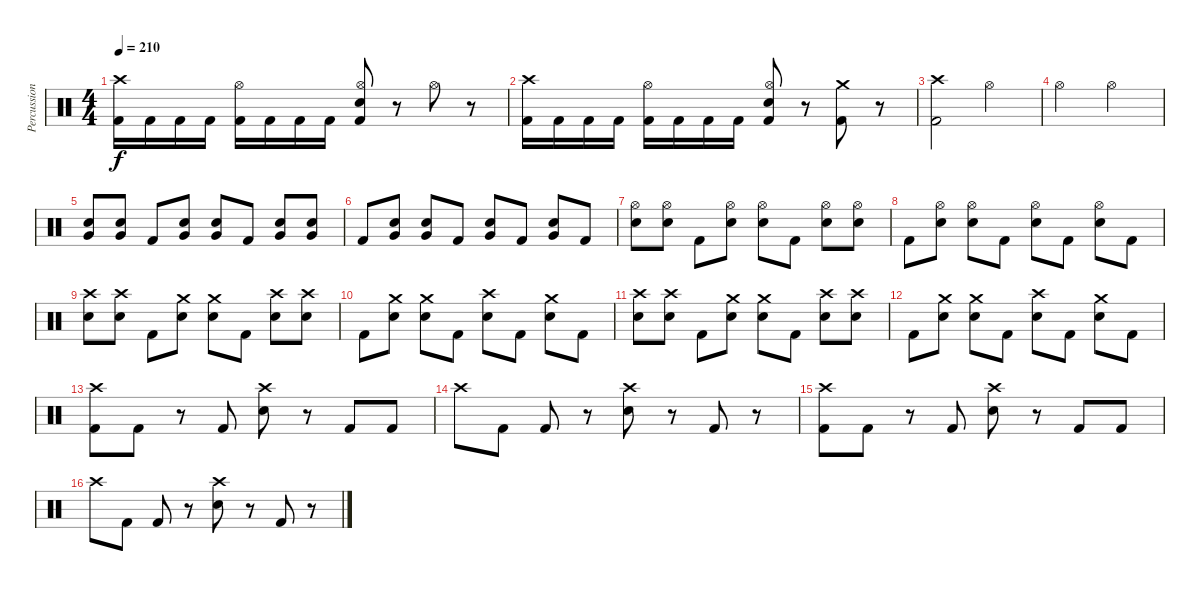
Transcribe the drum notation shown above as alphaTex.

\track ("Percussion" "Percussion") {instrument percussion}
\staff {score}
\articulation defaults
\ts (4 4)
\tempo 210
\clef neutral
\ks c
("Crash high (hit)" "Kick (hit) 2").16{dy f} "Kick (hit) 2".16 "Kick (hit) 2".16 "Kick (hit) 2".16 ("Hi-Hat (open)" "Kick (hit) 2").16 "Kick (hit) 2".16 "Kick (hit) 2".16 "Kick (hit) 2".16 ("Hi-Hat (open)" "Electric Snare (hit)" "Kick (hit) 2").8 r.8 "Hi-Hat (open)".8 r.8 |
("Crash high (hit)" "Kick (hit) 2").16 "Kick (hit) 2".16 "Kick (hit) 2".16 "Kick (hit) 2".16 ("Hi-Hat (open)" "Kick (hit) 2").16 "Kick (hit) 2".16 "Kick (hit) 2".16 "Kick (hit) 2".16 ("Hi-Hat (open)" "Electric Snare (hit)" "Kick (hit) 2").8 r.8 ("Crash medium (hit)" "Kick (hit) 2").8 r.8 |
("Crash high (hit)" "Kick (hit) 2").2 "Hi-Hat (open)".2 |
"Hi-Hat (open)".2 "Hi-Hat (open)".2 |
("Very Low Tom (hit)" "Electric Snare (hit)").8 ("Very Low Tom (hit)" "Electric Snare (hit)").8 "Kick (hit) 2".8 ("Very Low Tom (hit)" "Electric Snare (hit)").8 ("Very Low Tom (hit)" "Electric Snare (hit)").8 "Kick (hit) 2".8 ("Very Low Tom (hit)" "Electric Snare (hit)").8 ("Very Low Tom (hit)" "Electric Snare (hit)").8 |
"Kick (hit) 2".8 ("Very Low Tom (hit)" "Electric Snare (hit)").8 ("Very Low Tom (hit)" "Electric Snare (hit)").8 "Kick (hit) 2".8 ("Very Low Tom (hit)" "Electric Snare (hit)").8 "Kick (hit) 2".8 ("Very Low Tom (hit)" "Electric Snare (hit)").8 "Kick (hit) 2".8 |
("Hi-Hat (open)" "Electric Snare (hit)").8 ("Hi-Hat (open)" "Electric Snare (hit)").8 "Kick (hit) 2".8 ("Hi-Hat (open)" "Electric Snare (hit)").8 ("Hi-Hat (open)" "Electric Snare (hit)").8 "Kick (hit) 2".8 ("Hi-Hat (open)" "Electric Snare (hit)").8 ("Hi-Hat (open)" "Electric Snare (hit)").8 |
"Kick (hit) 2".8 ("Hi-Hat (open)" "Electric Snare (hit)").8 ("Hi-Hat (open)" "Electric Snare (hit)").8 "Kick (hit) 2".8 ("Hi-Hat (open)" "Electric Snare (hit)").8 "Kick (hit) 2".8 ("Hi-Hat (open)" "Electric Snare (hit)").8 "Kick (hit) 2".8 |
("Crash high (hit)" "Electric Snare (hit)").8 ("Crash high (hit)" "Electric Snare (hit)").8 "Kick (hit) 2".8 ("Crash medium (hit)" "Electric Snare (hit)").8 ("Crash medium (hit)" "Electric Snare (hit)").8 "Kick (hit) 2".8 ("Crash high (hit)" "Electric Snare (hit)").8 ("Crash high (hit)" "Electric Snare (hit)").8 |
"Kick (hit) 2".8 ("Crash medium (hit)" "Electric Snare (hit)").8 ("Crash medium (hit)" "Electric Snare (hit)").8 "Kick (hit) 2".8 ("Crash high (hit)" "Electric Snare (hit)").8 "Kick (hit) 2".8 ("Crash medium (hit)" "Electric Snare (hit)").8 "Kick (hit) 2".8 |
("Crash high (hit)" "Electric Snare (hit)").8 ("Crash high (hit)" "Electric Snare (hit)").8 "Kick (hit) 2".8 ("Crash medium (hit)" "Electric Snare (hit)").8 ("Crash medium (hit)" "Electric Snare (hit)").8 "Kick (hit) 2".8 ("Crash high (hit)" "Electric Snare (hit)").8 ("Crash high (hit)" "Electric Snare (hit)").8 |
"Kick (hit) 2".8 ("Crash medium (hit)" "Electric Snare (hit)").8 ("Crash medium (hit)" "Electric Snare (hit)").8 "Kick (hit) 2".8 ("Crash high (hit)" "Electric Snare (hit)").8 "Kick (hit) 2".8 ("Crash medium (hit)" "Electric Snare (hit)").8 "Kick (hit) 2".8 |
("Crash high (hit)" "Kick (hit) 2").8 "Kick (hit) 2".8 r.8 "Kick (hit) 2".8 ("Crash high (hit)" "Electric Snare (hit)").8 r.8 "Kick (hit) 2".8 "Kick (hit) 2".8 |
"Crash high (hit)".8 "Kick (hit) 2".8 "Kick (hit) 2".8 r.8 ("Crash high (hit)" "Electric Snare (hit)").8 r.8 "Kick (hit) 2".8 r.8 |
("Crash high (hit)" "Kick (hit) 2").8 "Kick (hit) 2".8 r.8 "Kick (hit) 2".8 ("Crash high (hit)" "Electric Snare (hit)").8 r.8 "Kick (hit) 2".8 "Kick (hit) 2".8 |
"Crash high (hit)".8 "Kick (hit) 2".8 "Kick (hit) 2".8 r.8 ("Crash high (hit)" "Electric Snare (hit)").8 r.8 "Kick (hit) 2".8 r.8
